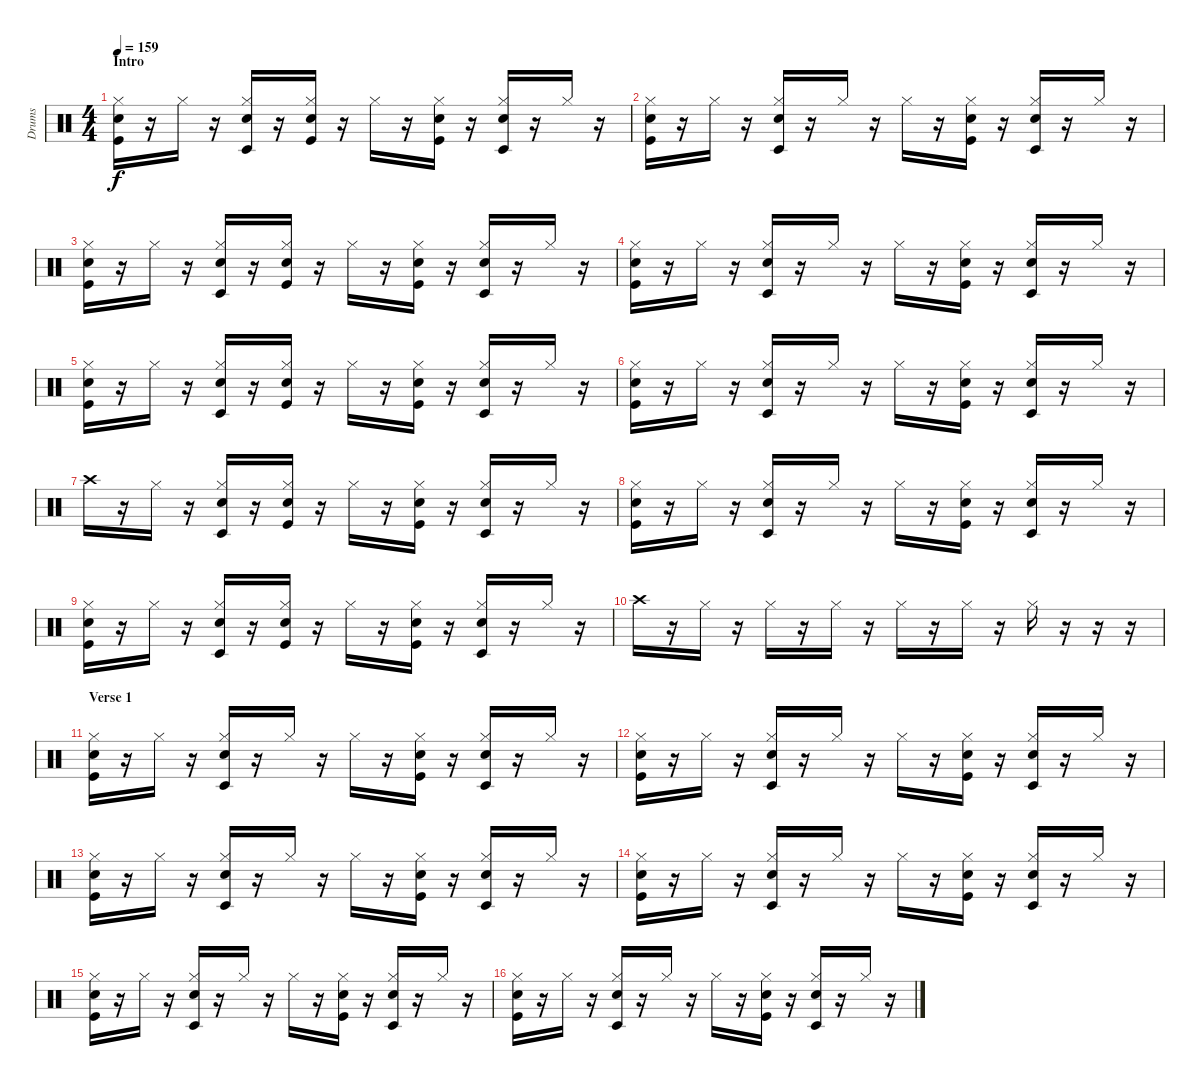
\track ("Drums" "Drums") {instrument percussion}
\staff {score}
\articulation defaults
\ts (4 4)
\section ("" "Intro")
\tempo 159
\clef neutral
\ks c
("Hi-Hat (closed)" "Snare (hit) 2" "Kick (hit)").16{dy f} r.16 "Hi-Hat (closed)".16 r.16 ("Hi-Hat (closed)" "Timbale low (hit)" "Snare (hit) 2").16 r.16 ("Hi-Hat (closed)" "Snare (hit) 2" "Kick (hit)").16 r.16 "Hi-Hat (closed)".16 r.16 ("Hi-Hat (closed)" "Snare (hit) 2" "Kick (hit)").16 r.16 ("Hi-Hat (closed)" "Timbale low (hit)" "Snare (hit) 2").16 r.16 "Hi-Hat (closed)".16 r.16 |
("Hi-Hat (closed)" "Snare (hit) 2" "Kick (hit)").16 r.16 "Hi-Hat (closed)".16 r.16 ("Hi-Hat (closed)" "Timbale low (hit)" "Snare (hit) 2").16 r.16 "Hi-Hat (closed)".16 r.16 "Hi-Hat (closed)".16 r.16 ("Hi-Hat (closed)" "Snare (hit) 2" "Kick (hit)").16 r.16 ("Hi-Hat (closed)" "Timbale low (hit)" "Snare (hit) 2").16 r.16 "Hi-Hat (closed)".16 r.16 |
("Hi-Hat (closed)" "Snare (hit) 2" "Kick (hit)").16 r.16 "Hi-Hat (closed)".16 r.16 ("Hi-Hat (closed)" "Timbale low (hit)" "Snare (hit) 2").16 r.16 ("Hi-Hat (closed)" "Snare (hit) 2" "Kick (hit)").16 r.16 "Hi-Hat (closed)".16 r.16 ("Hi-Hat (closed)" "Snare (hit) 2" "Kick (hit)").16 r.16 ("Hi-Hat (closed)" "Timbale low (hit)" "Snare (hit) 2").16 r.16 "Hi-Hat (closed)".16 r.16 |
("Hi-Hat (closed)" "Snare (hit) 2" "Kick (hit)").16 r.16 "Hi-Hat (closed)".16 r.16 ("Hi-Hat (closed)" "Timbale low (hit)" "Snare (hit) 2").16 r.16 "Hi-Hat (closed)".16 r.16 "Hi-Hat (closed)".16 r.16 ("Hi-Hat (closed)" "Snare (hit) 2" "Kick (hit)").16 r.16 ("Hi-Hat (closed)" "Timbale low (hit)" "Snare (hit) 2").16 r.16 "Hi-Hat (closed)".16 r.16 |
("Hi-Hat (closed)" "Snare (hit) 2" "Kick (hit)").16 r.16 "Hi-Hat (closed)".16 r.16 ("Hi-Hat (closed)" "Timbale low (hit)" "Snare (hit) 2").16 r.16 ("Hi-Hat (closed)" "Snare (hit) 2" "Kick (hit)").16 r.16 "Hi-Hat (closed)".16 r.16 ("Hi-Hat (closed)" "Snare (hit) 2" "Kick (hit)").16 r.16 ("Hi-Hat (closed)" "Timbale low (hit)" "Snare (hit) 2").16 r.16 "Hi-Hat (closed)".16 r.16 |
("Hi-Hat (closed)" "Snare (hit) 2" "Kick (hit)").16 r.16 "Hi-Hat (closed)".16 r.16 ("Hi-Hat (closed)" "Timbale low (hit)" "Snare (hit) 2").16 r.16 "Hi-Hat (closed)".16 r.16 "Hi-Hat (closed)".16 r.16 ("Hi-Hat (closed)" "Snare (hit) 2" "Kick (hit)").16 r.16 ("Hi-Hat (closed)" "Timbale low (hit)" "Snare (hit) 2").16 r.16 "Hi-Hat (closed)".16 r.16 |
"Crash high (hit)".16 r.16 "Hi-Hat (closed)".16 r.16 ("Hi-Hat (closed)" "Timbale low (hit)" "Snare (hit) 2").16 r.16 ("Hi-Hat (closed)" "Snare (hit) 2" "Kick (hit)").16 r.16 "Hi-Hat (closed)".16 r.16 ("Hi-Hat (closed)" "Snare (hit) 2" "Kick (hit)").16 r.16 ("Hi-Hat (closed)" "Timbale low (hit)" "Snare (hit) 2").16 r.16 "Hi-Hat (closed)".16 r.16 |
("Hi-Hat (closed)" "Snare (hit) 2" "Kick (hit)").16 r.16 "Hi-Hat (closed)".16 r.16 ("Hi-Hat (closed)" "Timbale low (hit)" "Snare (hit) 2").16 r.16 "Hi-Hat (closed)".16 r.16 "Hi-Hat (closed)".16 r.16 ("Hi-Hat (closed)" "Snare (hit) 2" "Kick (hit)").16 r.16 ("Hi-Hat (closed)" "Timbale low (hit)" "Snare (hit) 2").16 r.16 "Hi-Hat (closed)".16 r.16 |
("Hi-Hat (closed)" "Snare (hit) 2" "Kick (hit)").16 r.16 "Hi-Hat (closed)".16 r.16 ("Hi-Hat (closed)" "Timbale low (hit)" "Snare (hit) 2").16 r.16 ("Hi-Hat (closed)" "Snare (hit) 2" "Kick (hit)").16 r.16 "Hi-Hat (closed)".16 r.16 ("Hi-Hat (closed)" "Snare (hit) 2" "Kick (hit)").16 r.16 ("Hi-Hat (closed)" "Timbale low (hit)" "Snare (hit) 2").16 r.16 "Hi-Hat (closed)".16 r.16 |
"Crash high (hit)".16 r.16 "Hi-Hat (closed)".16 r.16 "Hi-Hat (closed)".16 r.16 "Hi-Hat (closed)".16 r.16 "Hi-Hat (closed)".16 r.16 "Hi-Hat (closed)".16 r.16 "Hi-Hat (closed)".16 r.16 r.16 r.16 |
\section ("" "Verse 1")
("Hi-Hat (closed)" "Snare (hit) 2" "Kick (hit)").16 r.16 "Hi-Hat (closed)".16 r.16 ("Hi-Hat (closed)" "Timbale low (hit)" "Snare (hit) 2").16 r.16 "Hi-Hat (closed)".16 r.16 "Hi-Hat (closed)".16 r.16 ("Hi-Hat (closed)" "Snare (hit) 2" "Kick (hit)").16 r.16 ("Hi-Hat (closed)" "Timbale low (hit)" "Snare (hit) 2").16 r.16 "Hi-Hat (closed)".16 r.16 |
("Hi-Hat (closed)" "Snare (hit) 2" "Kick (hit)").16 r.16 "Hi-Hat (closed)".16 r.16 ("Hi-Hat (closed)" "Timbale low (hit)" "Snare (hit) 2").16 r.16 "Hi-Hat (closed)".16 r.16 "Hi-Hat (closed)".16 r.16 ("Hi-Hat (closed)" "Snare (hit) 2" "Kick (hit)").16 r.16 ("Hi-Hat (closed)" "Timbale low (hit)" "Snare (hit) 2").16 r.16 "Hi-Hat (closed)".16 r.16 |
("Hi-Hat (closed)" "Snare (hit) 2" "Kick (hit)").16 r.16 "Hi-Hat (closed)".16 r.16 ("Hi-Hat (closed)" "Timbale low (hit)" "Snare (hit) 2").16 r.16 "Hi-Hat (closed)".16 r.16 "Hi-Hat (closed)".16 r.16 ("Hi-Hat (closed)" "Snare (hit) 2" "Kick (hit)").16 r.16 ("Hi-Hat (closed)" "Timbale low (hit)" "Snare (hit) 2").16 r.16 "Hi-Hat (closed)".16 r.16 |
("Hi-Hat (closed)" "Snare (hit) 2" "Kick (hit)").16 r.16 "Hi-Hat (closed)".16 r.16 ("Hi-Hat (closed)" "Timbale low (hit)" "Snare (hit) 2").16 r.16 "Hi-Hat (closed)".16 r.16 "Hi-Hat (closed)".16 r.16 ("Hi-Hat (closed)" "Snare (hit) 2" "Kick (hit)").16 r.16 ("Hi-Hat (closed)" "Timbale low (hit)" "Snare (hit) 2").16 r.16 "Hi-Hat (closed)".16 r.16 |
("Hi-Hat (closed)" "Snare (hit) 2" "Kick (hit)").16 r.16 "Hi-Hat (closed)".16 r.16 ("Hi-Hat (closed)" "Timbale low (hit)" "Snare (hit) 2").16 r.16 "Hi-Hat (closed)".16 r.16 "Hi-Hat (closed)".16 r.16 ("Hi-Hat (closed)" "Snare (hit) 2" "Kick (hit)").16 r.16 ("Hi-Hat (closed)" "Timbale low (hit)" "Snare (hit) 2").16 r.16 "Hi-Hat (closed)".16 r.16 |
("Hi-Hat (closed)" "Snare (hit) 2" "Kick (hit)").16 r.16 "Hi-Hat (closed)".16 r.16 ("Hi-Hat (closed)" "Timbale low (hit)" "Snare (hit) 2").16 r.16 "Hi-Hat (closed)".16 r.16 "Hi-Hat (closed)".16 r.16 ("Hi-Hat (closed)" "Snare (hit) 2" "Kick (hit)").16 r.16 ("Hi-Hat (closed)" "Timbale low (hit)" "Snare (hit) 2").16 r.16 "Hi-Hat (closed)".16 r.16
